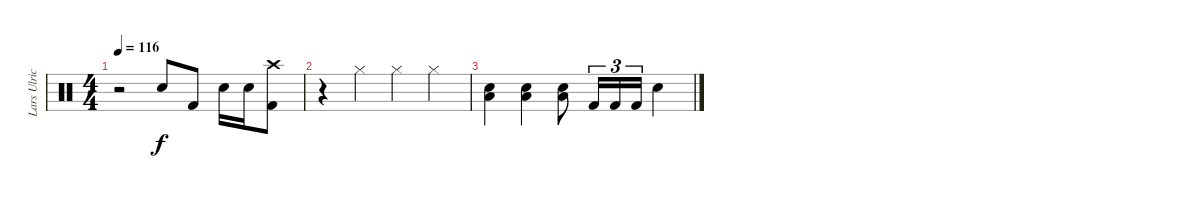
\track ("Lars Ulrich" "Lars Ulric") {instrument percussion}
\staff {score}
\articulation defaults
\ts (4 4)
\tempo 116
\clef neutral
\ks c
r.2{dy f} "Electric Snare (hit)".8 "Kick (hit) 2".8 "Electric Snare (hit)".16 "Electric Snare (hit)".16 ("Crash high (hit)" "Kick (hit) 2").8 |
r.4 "Hi-Hat (closed)".4 "Hi-Hat (closed)".4 "Hi-Hat (closed)".4 |
("Electric Snare (hit)" "Low Floor Tom (hit)").4 ("Electric Snare (hit)" "Low Floor Tom (hit)").4 ("Electric Snare (hit)" "Low Floor Tom (hit)").8 "Kick (hit) 2".16{tu (3 2)} "Kick (hit) 2".16{tu (3 2)} "Kick (hit) 2".16{tu (3 2)} "Electric Snare (hit)".4
